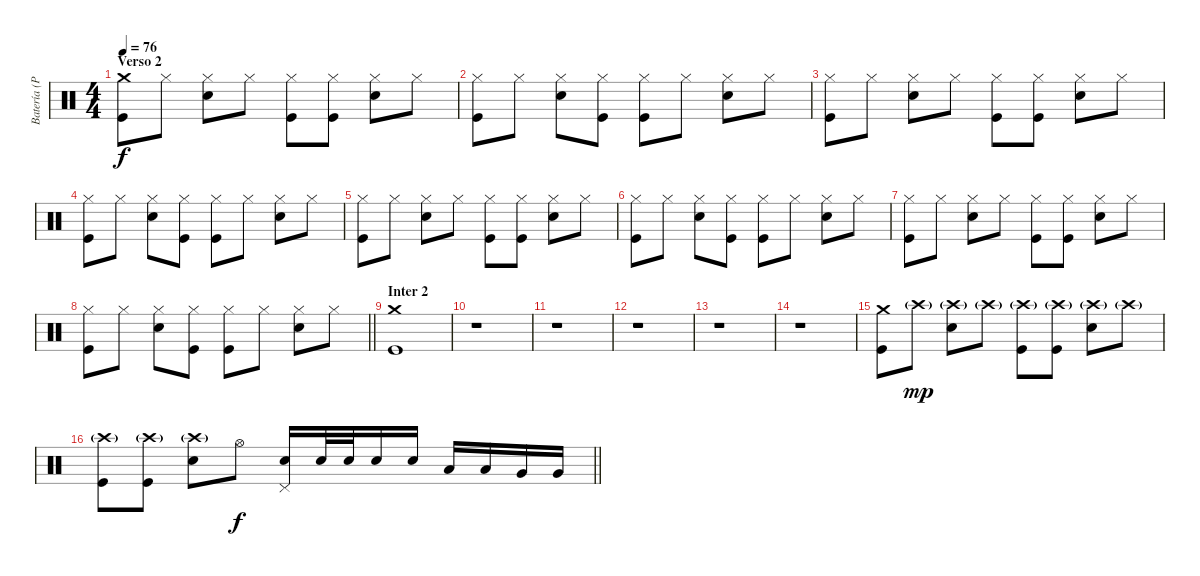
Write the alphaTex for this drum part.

\track ("Batería (Phill Selway)" "Batería (P") {instrument percussion}
\staff {score}
\articulation defaults
\ts (4 4)
\section ("" "Verso 2 ")
\tempo 76
\clef neutral
\ks c
("Crash medium (hit)" "Kick (hit)").8{dy f} "Hi-Hat (closed)".8 ("Hi-Hat (closed)" "Snare (hit) 2").8 "Hi-Hat (closed)".8 ("Hi-Hat (closed)" "Kick (hit)").8 ("Hi-Hat (closed)" "Kick (hit)").8 ("Hi-Hat (closed)" "Snare (hit) 2").8 "Hi-Hat (closed)".8 |
("Hi-Hat (closed)" "Kick (hit)").8 "Hi-Hat (closed)".8 ("Hi-Hat (closed)" "Snare (hit) 2").8 ("Hi-Hat (closed)" "Kick (hit)").8 ("Hi-Hat (closed)" "Kick (hit)").8 "Hi-Hat (closed)".8 ("Hi-Hat (closed)" "Snare (hit) 2").8 "Hi-Hat (closed)".8 |
("Hi-Hat (closed)" "Kick (hit)").8 "Hi-Hat (closed)".8 ("Hi-Hat (closed)" "Snare (hit) 2").8 "Hi-Hat (closed)".8 ("Hi-Hat (closed)" "Kick (hit)").8 ("Hi-Hat (closed)" "Kick (hit)").8 ("Hi-Hat (closed)" "Snare (hit) 2").8 "Hi-Hat (closed)".8 |
("Hi-Hat (closed)" "Kick (hit)").8 "Hi-Hat (closed)".8 ("Hi-Hat (closed)" "Snare (hit) 2").8 ("Hi-Hat (closed)" "Kick (hit)").8 ("Hi-Hat (closed)" "Kick (hit)").8 "Hi-Hat (closed)".8 ("Hi-Hat (closed)" "Snare (hit) 2").8 "Hi-Hat (closed)".8 |
("Hi-Hat (closed)" "Kick (hit)").8 "Hi-Hat (closed)".8 ("Hi-Hat (closed)" "Snare (hit) 2").8 "Hi-Hat (closed)".8 ("Hi-Hat (closed)" "Kick (hit)").8 ("Hi-Hat (closed)" "Kick (hit)").8 ("Hi-Hat (closed)" "Snare (hit) 2").8 "Hi-Hat (closed)".8 |
("Hi-Hat (closed)" "Kick (hit)").8 "Hi-Hat (closed)".8 ("Hi-Hat (closed)" "Snare (hit) 2").8 ("Hi-Hat (closed)" "Kick (hit)").8 ("Hi-Hat (closed)" "Kick (hit)").8 "Hi-Hat (closed)".8 ("Hi-Hat (closed)" "Snare (hit) 2").8 "Hi-Hat (closed)".8 |
("Hi-Hat (closed)" "Kick (hit)").8 "Hi-Hat (closed)".8 ("Hi-Hat (closed)" "Snare (hit) 2").8 "Hi-Hat (closed)".8 ("Hi-Hat (closed)" "Kick (hit)").8 ("Hi-Hat (closed)" "Kick (hit)").8 ("Hi-Hat (closed)" "Snare (hit) 2").8 "Hi-Hat (closed)".8 |
\barLineRight lightlight
("Hi-Hat (closed)" "Kick (hit)").8 "Hi-Hat (closed)".8 ("Hi-Hat (closed)" "Snare (hit) 2").8 ("Hi-Hat (closed)" "Kick (hit)").8 ("Hi-Hat (closed)" "Kick (hit)").8 "Hi-Hat (closed)".8 ("Hi-Hat (closed)" "Snare (hit) 2").8 "Hi-Hat (closed)".8 |
\section ("" "Inter 2")
("Crash medium (hit)" "Kick (hit)").1 |
r.1 |
r.1 |
r.1 |
r.1 |
r.1 |
("Crash medium (hit)" "Kick (hit)").8 "Crash high (hit)"{g}.8{dy mp} ("Crash high (hit)"{g} "Snare (hit) 2").8 "Crash high (hit)"{g}.8 ("Crash high (hit)"{g} "Kick (hit)").8 ("Crash high (hit)"{g} "Kick (hit)").8 ("Crash high (hit)"{g} "Snare (hit) 2").8 "Crash high (hit)"{g}.8 |
\barLineRight lightlight
("Crash high (hit)"{g} "Kick (hit)").8 ("Crash high (hit)"{g} "Kick (hit)").8 ("Crash high (hit)"{g} "Snare (hit) 2").8 "Hi-Hat (open)".8{dy f} ("Pedal Hi-Hat (hit)" "Snare (hit) 2").16 "Snare (hit) 2".32 "Snare (hit) 2".32 "Snare (hit) 2".16 "Snare (hit) 2".16 "Low Tom (hit)".16 "Low Tom (hit)".16 "Very Low Tom (hit)".16 "Very Low Tom (hit)".16
